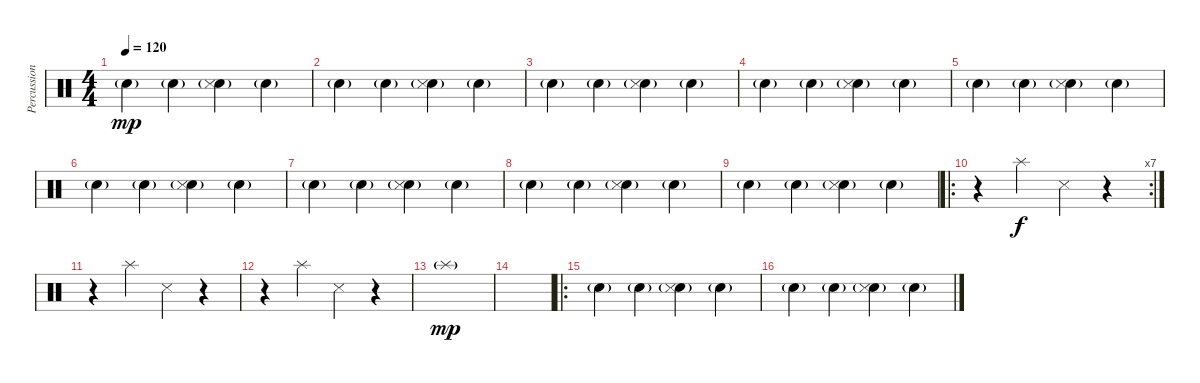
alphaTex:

\track ("Percussion" "Percussion") {instrument percussion}
\staff {score}
\articulation defaults
\ts (4 4)
\tempo 120
\clef neutral
\ks c "Snare (hit) 2"{g}.4{dy mp} "Snare (hit) 2"{g}.4
("Snare (hit) 2"{g} "Snare (side stick) 3").4 "Snare (hit) 2"{g}.4 |
"Snare (hit) 2"{g}.4 "Snare (hit) 2"{g}.4 ("Snare (hit) 2"{g} "Snare (side stick) 3").4 "Snare (hit) 2"{g}.4 |
"Snare (hit) 2"{g}.4 "Snare (hit) 2"{g}.4 ("Snare (hit) 2"{g} "Snare (side stick) 3").4 "Snare (hit) 2"{g}.4 |
"Snare (hit) 2"{g}.4 "Snare (hit) 2"{g}.4 ("Snare (hit) 2"{g} "Snare (side stick) 3").4 "Snare (hit) 2"{g}.4 |
"Snare (hit) 2"{g}.4 "Snare (hit) 2"{g}.4 ("Snare (hit) 2"{g} "Snare (side stick) 3").4 "Snare (hit) 2"{g}.4 |
"Snare (hit) 2"{g}.4 "Snare (hit) 2"{g}.4 ("Snare (hit) 2"{g} "Snare (side stick) 3").4 "Snare (hit) 2"{g}.4 |
"Snare (hit) 2"{g}.4 "Snare (hit) 2"{g}.4 ("Snare (hit) 2"{g} "Snare (side stick) 3").4 "Snare (hit) 2"{g}.4 |
"Snare (hit) 2"{g}.4 "Snare (hit) 2"{g}.4 ("Snare (hit) 2"{g} "Snare (side stick) 3").4 "Snare (hit) 2"{g}.4 |
"Snare (hit) 2"{g}.4 "Snare (hit) 2"{g}.4 ("Snare (hit) 2"{g} "Snare (side stick) 3").4 "Snare (hit) 2"{g}.4 |
\ro
\rc 7
r.4 "Splash (hit)".4{dy f} "Snare (side stick) 3".4 r.4 |
r.4 "Splash (hit)".4 "Snare (side stick) 3".4 r.4 |
r.4 "Splash (hit)".4 "Snare (side stick) 3".4 r.4 |
"Splash (hit)"{g}.1{dy mp} |
|
\ro "Snare (hit) 2"{g}.4 "Snare (hit) 2"{g}.4
("Snare (hit) 2"{g} "Snare (side stick) 3").4 "Snare (hit) 2"{g}.4 |
"Snare (hit) 2"{g}.4 "Snare (hit) 2"{g}.4 ("Snare (hit) 2"{g} "Snare (side stick) 3").4 "Snare (hit) 2"{g}.4
